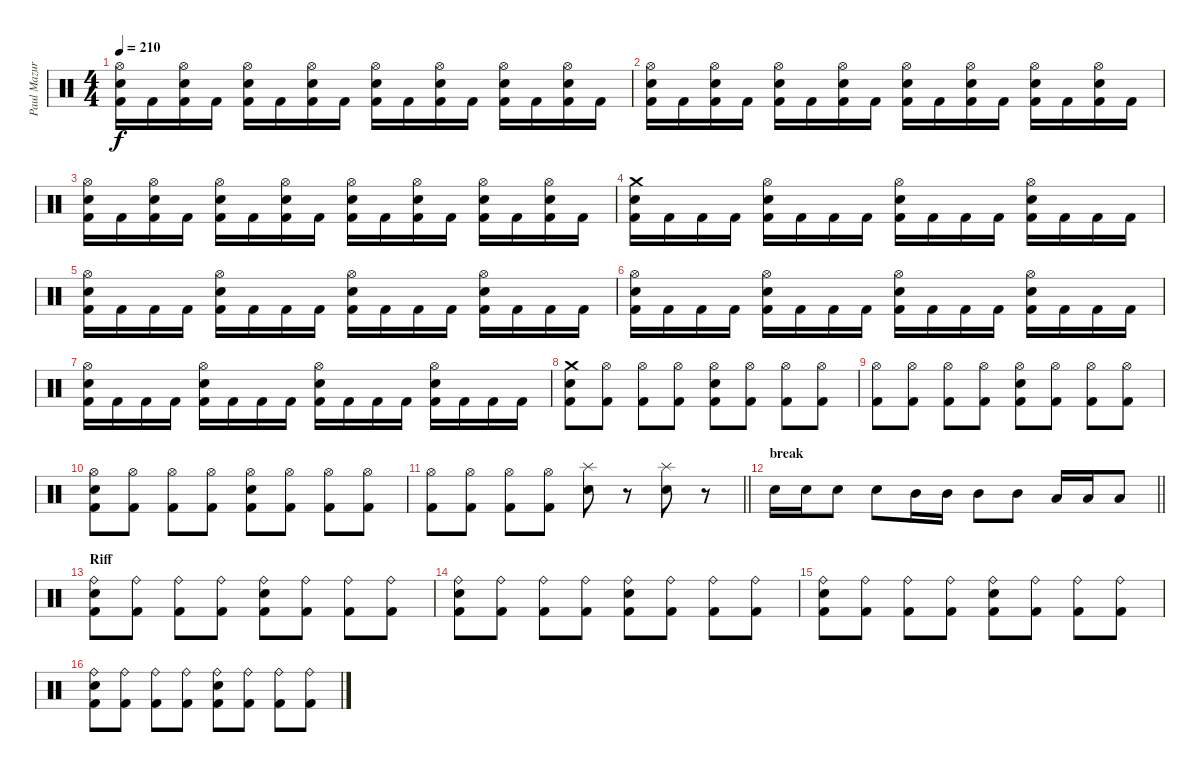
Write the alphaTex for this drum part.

\track ("Paul Mazurkiewicz" "Paul Mazur") {instrument percussion}
\staff {score}
\articulation defaults
\ts (4 4)
\tempo 210
\clef neutral
\ks c
("Hi-Hat (open)" "Snare (hit) 2" "Kick (hit) 2").16{dy f} "Kick (hit) 2".16 ("Hi-Hat (open)" "Snare (hit) 2" "Kick (hit) 2").16 "Kick (hit) 2".16 ("Hi-Hat (open)" "Snare (hit) 2" "Kick (hit) 2").16 "Kick (hit) 2".16 ("Hi-Hat (open)" "Snare (hit) 2" "Kick (hit) 2").16 "Kick (hit) 2".16 ("Hi-Hat (open)" "Snare (hit) 2" "Kick (hit) 2").16 "Kick (hit) 2".16 ("Hi-Hat (open)" "Snare (hit) 2" "Kick (hit) 2").16 "Kick (hit) 2".16 ("Hi-Hat (open)" "Snare (hit) 2" "Kick (hit) 2").16 "Kick (hit) 2".16 ("Hi-Hat (open)" "Snare (hit) 2" "Kick (hit) 2").16 "Kick (hit) 2".16 |
("Hi-Hat (open)" "Snare (hit) 2" "Kick (hit) 2").16 "Kick (hit) 2".16 ("Hi-Hat (open)" "Snare (hit) 2" "Kick (hit) 2").16 "Kick (hit) 2".16 ("Hi-Hat (open)" "Snare (hit) 2" "Kick (hit) 2").16 "Kick (hit) 2".16 ("Hi-Hat (open)" "Snare (hit) 2" "Kick (hit) 2").16 "Kick (hit) 2".16 ("Hi-Hat (open)" "Snare (hit) 2" "Kick (hit) 2").16 "Kick (hit) 2".16 ("Hi-Hat (open)" "Snare (hit) 2" "Kick (hit) 2").16 "Kick (hit) 2".16 ("Hi-Hat (open)" "Snare (hit) 2" "Kick (hit) 2").16 "Kick (hit) 2".16 ("Hi-Hat (open)" "Snare (hit) 2" "Kick (hit) 2").16 "Kick (hit) 2".16 |
("Hi-Hat (open)" "Snare (hit) 2" "Kick (hit) 2").16 "Kick (hit) 2".16 ("Hi-Hat (open)" "Snare (hit) 2" "Kick (hit) 2").16 "Kick (hit) 2".16 ("Hi-Hat (open)" "Snare (hit) 2" "Kick (hit) 2").16 "Kick (hit) 2".16 ("Hi-Hat (open)" "Snare (hit) 2" "Kick (hit) 2").16 "Kick (hit) 2".16 ("Hi-Hat (open)" "Snare (hit) 2" "Kick (hit) 2").16 "Kick (hit) 2".16 ("Hi-Hat (open)" "Snare (hit) 2" "Kick (hit) 2").16 "Kick (hit) 2".16 ("Hi-Hat (open)" "Snare (hit) 2" "Kick (hit) 2").16 "Kick (hit) 2".16 ("Hi-Hat (open)" "Snare (hit) 2" "Kick (hit) 2").16 "Kick (hit) 2".16 |
("Crash medium (hit)" "Snare (hit) 2" "Kick (hit) 2").16 "Kick (hit) 2".16 "Kick (hit) 2".16 "Kick (hit) 2".16 ("Hi-Hat (open)" "Snare (hit) 2" "Kick (hit) 2").16 "Kick (hit) 2".16 "Kick (hit) 2".16 "Kick (hit) 2".16 ("Hi-Hat (open)" "Snare (hit) 2" "Kick (hit) 2").16 "Kick (hit) 2".16 "Kick (hit) 2".16 "Kick (hit) 2".16 ("Hi-Hat (open)" "Snare (hit) 2" "Kick (hit) 2").16 "Kick (hit) 2".16 "Kick (hit) 2".16 "Kick (hit) 2".16 |
("Hi-Hat (open)" "Snare (hit) 2" "Kick (hit) 2").16 "Kick (hit) 2".16 "Kick (hit) 2".16 "Kick (hit) 2".16 ("Hi-Hat (open)" "Snare (hit) 2" "Kick (hit) 2").16 "Kick (hit) 2".16 "Kick (hit) 2".16 "Kick (hit) 2".16 ("Hi-Hat (open)" "Snare (hit) 2" "Kick (hit) 2").16 "Kick (hit) 2".16 "Kick (hit) 2".16 "Kick (hit) 2".16 ("Hi-Hat (open)" "Snare (hit) 2" "Kick (hit) 2").16 "Kick (hit) 2".16 "Kick (hit) 2".16 "Kick (hit) 2".16 |
("Hi-Hat (open)" "Snare (hit) 2" "Kick (hit) 2").16 "Kick (hit) 2".16 "Kick (hit) 2".16 "Kick (hit) 2".16 ("Hi-Hat (open)" "Snare (hit) 2" "Kick (hit) 2").16 "Kick (hit) 2".16 "Kick (hit) 2".16 "Kick (hit) 2".16 ("Hi-Hat (open)" "Snare (hit) 2" "Kick (hit) 2").16 "Kick (hit) 2".16 "Kick (hit) 2".16 "Kick (hit) 2".16 ("Hi-Hat (open)" "Snare (hit) 2" "Kick (hit) 2").16 "Kick (hit) 2".16 "Kick (hit) 2".16 "Kick (hit) 2".16 |
("Hi-Hat (open)" "Snare (hit) 2" "Kick (hit) 2").16 "Kick (hit) 2".16 "Kick (hit) 2".16 "Kick (hit) 2".16 ("Hi-Hat (open)" "Snare (hit) 2" "Kick (hit) 2").16 "Kick (hit) 2".16 "Kick (hit) 2".16 "Kick (hit) 2".16 ("Hi-Hat (open)" "Snare (hit) 2" "Kick (hit) 2").16 "Kick (hit) 2".16 "Kick (hit) 2".16 "Kick (hit) 2".16 ("Hi-Hat (open)" "Snare (hit) 2" "Kick (hit) 2").16 "Kick (hit) 2".16 "Kick (hit) 2".16 "Kick (hit) 2".16 |
("Crash medium (hit)" "Snare (hit) 2" "Kick (hit) 2").8 ("Hi-Hat (open)" "Kick (hit) 2").8 ("Hi-Hat (open)" "Kick (hit) 2").8 ("Hi-Hat (open)" "Kick (hit) 2").8 ("Hi-Hat (open)" "Snare (hit) 2" "Kick (hit) 2").8 ("Hi-Hat (open)" "Kick (hit) 2").8 ("Hi-Hat (open)" "Kick (hit) 2").8 ("Hi-Hat (open)" "Kick (hit) 2").8 |
("Hi-Hat (open)" "Kick (hit) 2").8 ("Hi-Hat (open)" "Kick (hit) 2").8 ("Hi-Hat (open)" "Kick (hit) 2").8 ("Hi-Hat (open)" "Kick (hit) 2").8 ("Hi-Hat (open)" "Snare (hit) 2" "Kick (hit) 2").8 ("Hi-Hat (open)" "Kick (hit) 2").8 ("Hi-Hat (open)" "Kick (hit) 2").8 ("Hi-Hat (open)" "Kick (hit) 2").8 |
("Hi-Hat (open)" "Snare (hit) 2" "Kick (hit) 2").8 ("Hi-Hat (open)" "Kick (hit) 2").8 ("Hi-Hat (open)" "Kick (hit) 2").8 ("Hi-Hat (open)" "Kick (hit) 2").8 ("Hi-Hat (open)" "Snare (hit) 2" "Kick (hit) 2").8 ("Hi-Hat (open)" "Kick (hit) 2").8 ("Hi-Hat (open)" "Kick (hit) 2").8 ("Hi-Hat (open)" "Kick (hit) 2").8 |
\barLineRight lightlight
("Hi-Hat (open)" "Kick (hit) 2").8 ("Hi-Hat (open)" "Kick (hit) 2").8 ("Hi-Hat (open)" "Kick (hit) 2").8 ("Hi-Hat (open)" "Kick (hit) 2").8 ("Splash (hit)" "Snare (hit) 2").8 r.8 ("Splash (hit)" "Snare (hit) 2").8 r.8 |
\section ("" "break")
\barLineRight lightlight "Snare (hit) 2".16 "Snare (hit) 2".16 "Snare (hit) 2".8 "Snare (hit) 2".8 "Mid Tom (hit)".16 "Mid Tom (hit)".16 "Mid Tom (hit)".8 "Mid Tom (hit)".8 "Low Tom (hit)".16 "Low Tom (hit)".16 "Low Tom (hit)".8
|
\section ("" "Riff")
("Ride (bell)" "Snare (hit) 2" "Kick (hit) 2").8 ("Ride (bell)" "Kick (hit) 2").8 ("Ride (bell)" "Kick (hit) 2").8 ("Ride (bell)" "Kick (hit) 2").8 ("Ride (bell)" "Snare (hit) 2" "Kick (hit) 2").8 ("Ride (bell)" "Kick (hit) 2").8 ("Ride (bell)" "Kick (hit) 2").8 ("Ride (bell)" "Kick (hit) 2").8 |
("Ride (bell)" "Snare (hit) 2" "Kick (hit) 2").8 ("Ride (bell)" "Kick (hit) 2").8 ("Ride (bell)" "Kick (hit) 2").8 ("Ride (bell)" "Kick (hit) 2").8 ("Ride (bell)" "Snare (hit) 2" "Kick (hit) 2").8 ("Ride (bell)" "Kick (hit) 2").8 ("Ride (bell)" "Kick (hit) 2").8 ("Ride (bell)" "Kick (hit) 2").8 |
("Ride (bell)" "Snare (hit) 2" "Kick (hit) 2").8 ("Ride (bell)" "Kick (hit) 2").8 ("Ride (bell)" "Kick (hit) 2").8 ("Ride (bell)" "Kick (hit) 2").8 ("Ride (bell)" "Snare (hit) 2" "Kick (hit) 2").8 ("Ride (bell)" "Kick (hit) 2").8 ("Ride (bell)" "Kick (hit) 2").8 ("Ride (bell)" "Kick (hit) 2").8 |
("Ride (bell)" "Snare (hit) 2" "Kick (hit) 2").8 ("Ride (bell)" "Kick (hit) 2").8 ("Ride (bell)" "Kick (hit) 2").8 ("Ride (bell)" "Kick (hit) 2").8 ("Ride (bell)" "Snare (hit) 2" "Kick (hit) 2").8 ("Ride (bell)" "Kick (hit) 2").8 ("Ride (bell)" "Kick (hit) 2").8 ("Ride (bell)" "Kick (hit) 2").8
